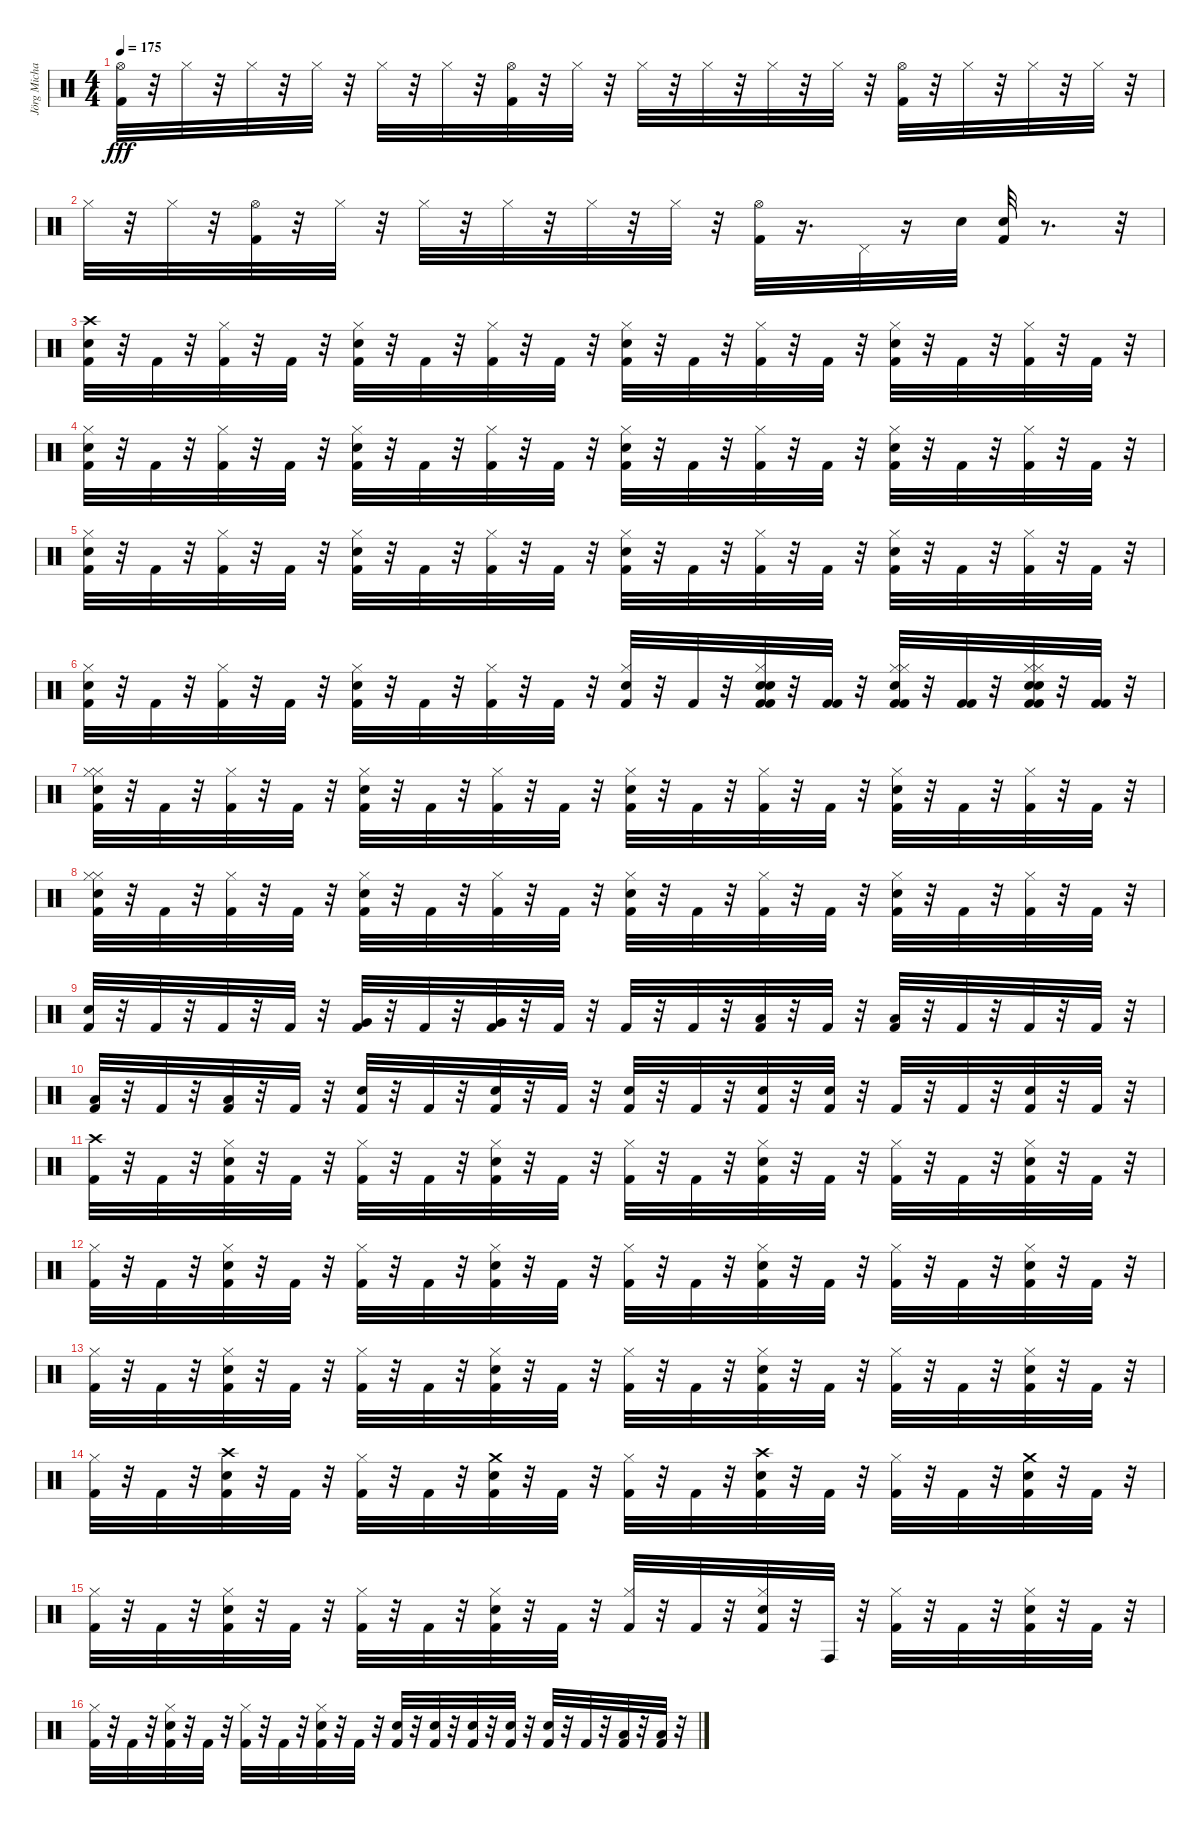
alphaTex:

\track ("Jörg Michael " "Jörg Micha") {instrument percussion}
\staff {score}
\articulation defaults
\ts (4 4)
\tempo 175
\clef neutral
\ks c
("Hi-Hat (open)" "Kick (hit) 2").32{dy fff} r.32 "Hi-Hat (closed)".32 r.32 "Hi-Hat (closed)".32 r.32 "Hi-Hat (closed)".32 r.32 "Hi-Hat (closed)".32 r.32 "Hi-Hat (closed)".32 r.32 ("Hi-Hat (open)" "Kick (hit) 2").32 r.32 "Hi-Hat (closed)".32 r.32 "Hi-Hat (closed)".32 r.32 "Hi-Hat (closed)".32 r.32 "Hi-Hat (closed)".32 r.32 "Hi-Hat (closed)".32 r.32 ("Hi-Hat (open)" "Kick (hit) 2").32 r.32 "Hi-Hat (closed)".32 r.32 "Hi-Hat (closed)".32 r.32 "Hi-Hat (closed)".32 r.32 |
"Hi-Hat (closed)".32 r.32 "Hi-Hat (closed)".32 r.32 ("Hi-Hat (open)" "Kick (hit) 2").32 r.32 "Hi-Hat (closed)".32 r.32 "Hi-Hat (closed)".32 r.32 "Hi-Hat (closed)".32 r.32 "Hi-Hat (closed)".32 r.32 "Hi-Hat (closed)".32 r.32 ("Hi-Hat (open)" "Kick (hit) 2").32 r.16{d} "Pedal Hi-Hat (hit)".32 r.16 "Snare (hit) 2".32 ("Snare (hit) 2" "Kick (hit) 2").32 r.8{d} r.32 |
("Crash high (hit)" "Snare (hit) 2" "Kick (hit) 2").32 r.32 "Kick (hit) 2".32 r.32 ("Hi-Hat (closed)" "Kick (hit) 2").32 r.32 "Kick (hit) 2".32 r.32 ("Hi-Hat (closed)" "Snare (hit) 2" "Kick (hit) 2").32 r.32 "Kick (hit) 2".32 r.32 ("Hi-Hat (closed)" "Kick (hit) 2").32 r.32 "Kick (hit) 2".32 r.32 ("Hi-Hat (closed)" "Snare (hit) 2" "Kick (hit) 2").32 r.32 "Kick (hit) 2".32 r.32 ("Hi-Hat (closed)" "Kick (hit) 2").32 r.32 "Kick (hit) 2".32 r.32 ("Hi-Hat (closed)" "Snare (hit) 2" "Kick (hit) 2").32 r.32 "Kick (hit) 2".32 r.32 ("Hi-Hat (closed)" "Kick (hit) 2").32 r.32 "Kick (hit) 2".32 r.32 |
("Hi-Hat (closed)" "Snare (hit) 2" "Kick (hit) 2").32 r.32 "Kick (hit) 2".32 r.32 ("Hi-Hat (closed)" "Kick (hit) 2").32 r.32 "Kick (hit) 2".32 r.32 ("Hi-Hat (closed)" "Snare (hit) 2" "Kick (hit) 2").32 r.32 "Kick (hit) 2".32 r.32 ("Hi-Hat (closed)" "Kick (hit) 2").32 r.32 "Kick (hit) 2".32 r.32 ("Hi-Hat (closed)" "Snare (hit) 2" "Kick (hit) 2").32 r.32 "Kick (hit) 2".32 r.32 ("Hi-Hat (closed)" "Kick (hit) 2").32 r.32 "Kick (hit) 2".32 r.32 ("Hi-Hat (closed)" "Snare (hit) 2" "Kick (hit) 2").32 r.32 "Kick (hit) 2".32 r.32 ("Hi-Hat (closed)" "Kick (hit) 2").32 r.32 "Kick (hit) 2".32 r.32 |
("Hi-Hat (closed)" "Snare (hit) 2" "Kick (hit) 2").32 r.32 "Kick (hit) 2".32 r.32 ("Hi-Hat (closed)" "Kick (hit) 2").32 r.32 "Kick (hit) 2".32 r.32 ("Hi-Hat (closed)" "Snare (hit) 2" "Kick (hit) 2").32 r.32 "Kick (hit) 2".32 r.32 ("Hi-Hat (closed)" "Kick (hit) 2").32 r.32 "Kick (hit) 2".32 r.32 ("Hi-Hat (closed)" "Snare (hit) 2" "Kick (hit) 2").32 r.32 "Kick (hit) 2".32 r.32 ("Hi-Hat (closed)" "Kick (hit) 2").32 r.32 "Kick (hit) 2".32 r.32 ("Hi-Hat (closed)" "Snare (hit) 2" "Kick (hit) 2").32 r.32 "Kick (hit) 2".32 r.32 ("Hi-Hat (closed)" "Kick (hit) 2").32 r.32 "Kick (hit) 2".32 r.32 |
("Hi-Hat (closed)" "Snare (hit) 2" "Kick (hit) 2").32 r.32 "Kick (hit) 2".32 r.32 ("Hi-Hat (closed)" "Kick (hit) 2").32 r.32 "Kick (hit) 2".32 r.32 ("Hi-Hat (closed)" "Snare (hit) 2" "Kick (hit) 2").32 r.32 "Kick (hit) 2".32 r.32 ("Hi-Hat (closed)" "Kick (hit) 2").32 r.32 "Kick (hit) 2".32 r.32 ("Hi-Hat (closed)" "Snare (hit) 2" "Kick (hit) 2").32 r.32 "Kick (hit) 2".32 r.32 ("Hi-Hat (closed)" "Snare (hit) 2" "Snare (hit) 2" "Kick (hit) 2" "Kick (hit) 2").32 r.32 ("Kick (hit) 2" "Kick (hit) 2").32 r.32 ("Hi-Hat (closed)" "Hi-Hat (closed)" "Snare (hit) 2" "Kick (hit) 2" "Kick (hit) 2").32 r.32 ("Kick (hit) 2" "Kick (hit) 2").32 r.32 ("Hi-Hat (closed)" "Hi-Hat (closed)" "Snare (hit) 2" "Snare (hit) 2" "Kick (hit) 2" "Kick (hit) 2").32 r.32 ("Kick (hit) 2" "Kick (hit) 2").32 r.32 |
("Hi-Hat (closed)" "Hi-Hat (closed)" "Snare (hit) 2" "Kick (hit) 2").32 r.32 "Kick (hit) 2".32 r.32 ("Hi-Hat (closed)" "Kick (hit) 2").32 r.32 "Kick (hit) 2".32 r.32 ("Hi-Hat (closed)" "Snare (hit) 2" "Kick (hit) 2").32 r.32 "Kick (hit) 2".32 r.32 ("Hi-Hat (closed)" "Kick (hit) 2").32 r.32 "Kick (hit) 2".32 r.32 ("Hi-Hat (closed)" "Snare (hit) 2" "Kick (hit) 2").32 r.32 "Kick (hit) 2".32 r.32 ("Hi-Hat (closed)" "Kick (hit) 2").32 r.32 "Kick (hit) 2".32 r.32 ("Hi-Hat (closed)" "Snare (hit) 2" "Kick (hit) 2").32 r.32 "Kick (hit) 2".32 r.32 ("Hi-Hat (closed)" "Kick (hit) 2").32 r.32 "Kick (hit) 2".32 r.32 |
("Hi-Hat (closed)" "Hi-Hat (closed)" "Snare (hit) 2" "Kick (hit) 2").32 r.32 "Kick (hit) 2".32 r.32 ("Hi-Hat (closed)" "Kick (hit) 2").32 r.32 "Kick (hit) 2".32 r.32 ("Hi-Hat (closed)" "Snare (hit) 2" "Kick (hit) 2").32 r.32 "Kick (hit) 2".32 r.32 ("Hi-Hat (closed)" "Kick (hit) 2").32 r.32 "Kick (hit) 2".32 r.32 ("Hi-Hat (closed)" "Snare (hit) 2" "Kick (hit) 2").32 r.32 "Kick (hit) 2".32 r.32 ("Hi-Hat (closed)" "Kick (hit) 2").32 r.32 "Kick (hit) 2".32 r.32 ("Hi-Hat (closed)" "Snare (hit) 2" "Kick (hit) 2").32 r.32 "Kick (hit) 2".32 r.32 ("Hi-Hat (closed)" "Kick (hit) 2").32 r.32 "Kick (hit) 2".32 r.32 |
("Snare (hit) 2" "Kick (hit) 2").32 r.32 "Kick (hit) 2".32 r.32 "Kick (hit) 2".32 r.32 "Kick (hit) 2".32 r.32 ("Very Low Tom (hit)" "Kick (hit) 2").32 r.32 "Kick (hit) 2".32 r.32 ("Very Low Tom (hit)" "Kick (hit) 2").32 r.32 "Kick (hit) 2".32 r.32 "Kick (hit) 2".32 r.32 "Kick (hit) 2".32 r.32 ("Low Floor Tom (hit)" "Kick (hit) 2").32 r.32 "Kick (hit) 2".32 r.32 ("Low Floor Tom (hit)" "Kick (hit) 2").32 r.32 "Kick (hit) 2".32 r.32 "Kick (hit) 2".32 r.32 "Kick (hit) 2".32 r.32 |
("Low Floor Tom (hit)" "Kick (hit) 2").32 r.32 "Kick (hit) 2".32 r.32 ("Low Floor Tom (hit)" "Kick (hit) 2").32 r.32 "Kick (hit) 2".32 r.32 ("Snare (hit) 2" "Kick (hit) 2").32 r.32 "Kick (hit) 2".32 r.32 ("Snare (hit) 2" "Kick (hit) 2").32 r.32 "Kick (hit) 2".32 r.32 ("Snare (hit) 2" "Kick (hit) 2").32 r.32 "Kick (hit) 2".32 r.32 ("Snare (hit) 2" "Kick (hit) 2").32 r.32 ("Snare (hit) 2" "Kick (hit) 2").32 r.32 "Kick (hit) 2".32 r.32 "Kick (hit) 2".32 r.32 ("Snare (hit) 2" "Kick (hit) 2").32 r.32 "Kick (hit) 2".32 r.32 |
("Crash high (hit)" "Kick (hit) 2").32 r.32 "Kick (hit) 2".32 r.32 ("Hi-Hat (closed)" "Snare (hit) 2" "Kick (hit) 2").32 r.32 "Kick (hit) 2".32 r.32 ("Hi-Hat (closed)" "Kick (hit) 2").32 r.32 "Kick (hit) 2".32 r.32 ("Hi-Hat (closed)" "Snare (hit) 2" "Kick (hit) 2").32 r.32 "Kick (hit) 2".32 r.32 ("Hi-Hat (closed)" "Kick (hit) 2").32 r.32 "Kick (hit) 2".32 r.32 ("Hi-Hat (closed)" "Snare (hit) 2" "Kick (hit) 2").32 r.32 "Kick (hit) 2".32 r.32 ("Hi-Hat (closed)" "Kick (hit) 2").32 r.32 "Kick (hit) 2".32 r.32 ("Hi-Hat (closed)" "Snare (hit) 2" "Kick (hit) 2").32 r.32 "Kick (hit) 2".32 r.32 |
("Hi-Hat (closed)" "Kick (hit) 2").32 r.32 "Kick (hit) 2".32 r.32 ("Hi-Hat (closed)" "Snare (hit) 2" "Kick (hit) 2").32 r.32 "Kick (hit) 2".32 r.32 ("Hi-Hat (closed)" "Kick (hit) 2").32 r.32 "Kick (hit) 2".32 r.32 ("Hi-Hat (closed)" "Snare (hit) 2" "Kick (hit) 2").32 r.32 "Kick (hit) 2".32 r.32 ("Hi-Hat (closed)" "Kick (hit) 2").32 r.32 "Kick (hit) 2".32 r.32 ("Hi-Hat (closed)" "Snare (hit) 2" "Kick (hit) 2").32 r.32 "Kick (hit) 2".32 r.32 ("Hi-Hat (closed)" "Kick (hit) 2").32 r.32 "Kick (hit) 2".32 r.32 ("Hi-Hat (closed)" "Snare (hit) 2" "Kick (hit) 2").32 r.32 "Kick (hit) 2".32 r.32 |
("Hi-Hat (closed)" "Kick (hit) 2").32 r.32 "Kick (hit) 2".32 r.32 ("Hi-Hat (closed)" "Snare (hit) 2" "Kick (hit) 2").32 r.32 "Kick (hit) 2".32 r.32 ("Hi-Hat (closed)" "Kick (hit) 2").32 r.32 "Kick (hit) 2".32 r.32 ("Hi-Hat (closed)" "Snare (hit) 2" "Kick (hit) 2").32 r.32 "Kick (hit) 2".32 r.32 ("Hi-Hat (closed)" "Kick (hit) 2").32 r.32 "Kick (hit) 2".32 r.32 ("Hi-Hat (closed)" "Snare (hit) 2" "Kick (hit) 2").32 r.32 "Kick (hit) 2".32 r.32 ("Hi-Hat (closed)" "Kick (hit) 2").32 r.32 "Kick (hit) 2".32 r.32 ("Hi-Hat (closed)" "Snare (hit) 2" "Kick (hit) 2").32 r.32 "Kick (hit) 2".32 r.32 |
("Hi-Hat (closed)" "Kick (hit) 2").32 r.32 "Kick (hit) 2".32 r.32 ("Crash high (hit)" "Snare (hit) 2" "Kick (hit) 2").32 r.32 "Kick (hit) 2".32 r.32 ("Hi-Hat (closed)" "Kick (hit) 2").32 r.32 "Kick (hit) 2".32 r.32 ("Crash medium (hit)" "Snare (hit) 2" "Kick (hit) 2").32 r.32 "Kick (hit) 2".32 r.32 ("Hi-Hat (closed)" "Kick (hit) 2").32 r.32 "Kick (hit) 2".32 r.32 ("Crash high (hit)" "Snare (hit) 2" "Kick (hit) 2").32 r.32 "Kick (hit) 2".32 r.32 ("Hi-Hat (closed)" "Kick (hit) 2").32 r.32 "Kick (hit) 2".32 r.32 ("Crash medium (hit)" "Snare (hit) 2" "Kick (hit) 2").32 r.32 "Kick (hit) 2".32 r.32 |
("Hi-Hat (closed)" "Kick (hit) 2").32 r.32 "Kick (hit) 2".32 r.32 ("Hi-Hat (closed)" "Snare (hit) 2" "Kick (hit) 2").32 r.32 "Kick (hit) 2".32 r.32 ("Hi-Hat (closed)" "Kick (hit) 2").32 r.32 "Kick (hit) 2".32 r.32 ("Hi-Hat (closed)" "Snare (hit) 2" "Kick (hit) 2").32 r.32 "Kick (hit) 2".32 r.32 ("Hi-Hat (closed)" "Kick (hit) 2").32 r.32 "Kick (hit) 2".32 r.32 ("Hi-Hat (closed)" "Snare (hit) 2" "Kick (hit) 2").32 r.32 "Conga high (hit)".32 r.32 ("Hi-Hat (closed)" "Kick (hit) 2").32 r.32 "Kick (hit) 2".32 r.32 ("Hi-Hat (closed)" "Snare (hit) 2" "Kick (hit) 2").32 r.32 "Kick (hit) 2".32 r.32 |
("Hi-Hat (closed)" "Kick (hit) 2").32 r.32 "Kick (hit) 2".32 r.32 ("Hi-Hat (closed)" "Snare (hit) 2" "Kick (hit) 2").32 r.32 "Kick (hit) 2".32 r.32 ("Hi-Hat (closed)" "Kick (hit) 2").32 r.32 "Kick (hit) 2".32 r.32 ("Hi-Hat (closed)" "Snare (hit) 2" "Kick (hit) 2").32 r.32 "Kick (hit) 2".32 r.32 ("Snare (hit) 2" "Kick (hit) 2").32 r.32 ("Snare (hit) 2" "Kick (hit) 2").32 r.32 ("Snare (hit) 2" "Kick (hit) 2").32 r.32 ("Snare (hit) 2" "Kick (hit) 2").32 r.32 ("Snare (hit) 2" "Kick (hit) 2").32 r.32 "Kick (hit) 2".32 r.32 ("Low Tom (hit)" "Kick (hit) 2").32 r.32 ("Low Tom (hit)" "Kick (hit) 2").32 r.32
